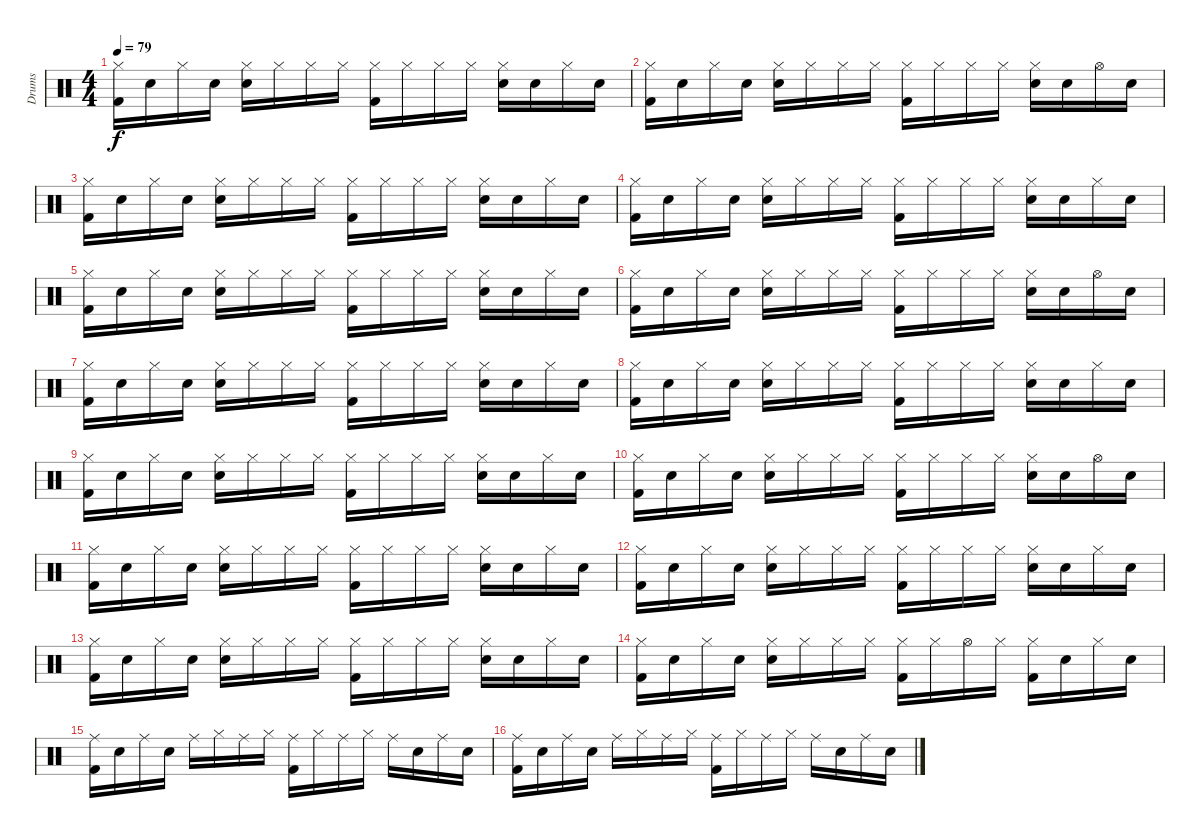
\track ("Drums" "Drums") {instrument percussion}
\staff {score}
\articulation defaults
\ts (4 4)
\tempo 79
\clef neutral
\ks c
("Hi-Hat (closed)" "Kick (hit) 2").16{dy f} "Snare (hit)"{x}.16 "Hi-Hat (closed)".16 "Snare (hit)"{x}.16 ("Hi-Hat (closed)" "Snare (hit) 2").16 "Hi-Hat (closed)"{x}.16 "Hi-Hat (closed)".16 "Hi-Hat (closed)"{x}.16 ("Hi-Hat (closed)" "Kick (hit) 2").16 "Hi-Hat (closed)"{x}.16 "Hi-Hat (closed)".16 "Hi-Hat (closed)"{x}.16 ("Hi-Hat (closed)" "Snare (hit) 2").16 "Snare (hit)"{x}.16 "Hi-Hat (closed)".16 "Snare (hit)"{x}.16 |
("Hi-Hat (closed)" "Kick (hit) 2").16 "Snare (hit)"{x}.16 "Hi-Hat (closed)".16 "Snare (hit)"{x}.16 ("Hi-Hat (closed)" "Snare (hit) 2").16 "Hi-Hat (closed)"{x}.16 "Hi-Hat (closed)".16 "Hi-Hat (closed)"{x}.16 ("Hi-Hat (closed)" "Kick (hit) 2").16 "Hi-Hat (closed)"{x}.16 "Hi-Hat (closed)".16 "Hi-Hat (closed)"{x}.16 ("Hi-Hat (closed)" "Snare (hit) 2").16 "Snare (hit)"{x}.16 "Hi-Hat (open)".16 "Snare (hit)"{x}.16 |
("Hi-Hat (closed)" "Kick (hit) 2").16 "Snare (hit)"{x}.16 "Hi-Hat (closed)".16 "Snare (hit)"{x}.16 ("Hi-Hat (closed)" "Snare (hit) 2").16 "Hi-Hat (closed)"{x}.16 "Hi-Hat (closed)".16 "Hi-Hat (closed)"{x}.16 ("Hi-Hat (closed)" "Kick (hit) 2").16 "Hi-Hat (closed)"{x}.16 "Hi-Hat (closed)".16 "Hi-Hat (closed)"{x}.16 ("Hi-Hat (closed)" "Snare (hit) 2").16 "Snare (hit)"{x}.16 "Hi-Hat (closed)".16 "Snare (hit)"{x}.16 |
("Hi-Hat (closed)" "Kick (hit) 2").16 "Snare (hit)"{x}.16 "Hi-Hat (closed)".16 "Snare (hit)"{x}.16 ("Hi-Hat (closed)" "Snare (hit) 2").16 "Hi-Hat (closed)"{x}.16 "Hi-Hat (closed)".16 "Hi-Hat (closed)"{x}.16 ("Hi-Hat (closed)" "Kick (hit) 2").16 "Hi-Hat (closed)"{x}.16 "Hi-Hat (closed)".16 "Hi-Hat (closed)"{x}.16 ("Hi-Hat (closed)" "Snare (hit) 2").16 "Snare (hit)"{x}.16 "Hi-Hat (closed)".16 "Snare (hit)"{x}.16 |
("Hi-Hat (closed)" "Kick (hit) 2").16 "Snare (hit)"{x}.16 "Hi-Hat (closed)".16 "Snare (hit)"{x}.16 ("Hi-Hat (closed)" "Snare (hit) 2").16 "Hi-Hat (closed)"{x}.16 "Hi-Hat (closed)".16 "Hi-Hat (closed)"{x}.16 ("Hi-Hat (closed)" "Kick (hit) 2").16 "Hi-Hat (closed)"{x}.16 "Hi-Hat (closed)".16 "Hi-Hat (closed)"{x}.16 ("Hi-Hat (closed)" "Snare (hit) 2").16 "Snare (hit)"{x}.16 "Hi-Hat (closed)".16 "Snare (hit)"{x}.16 |
("Hi-Hat (closed)" "Kick (hit) 2").16 "Snare (hit)"{x}.16 "Hi-Hat (closed)".16 "Snare (hit)"{x}.16 ("Hi-Hat (closed)" "Snare (hit) 2").16 "Hi-Hat (closed)"{x}.16 "Hi-Hat (closed)".16 "Hi-Hat (closed)"{x}.16 ("Hi-Hat (closed)" "Kick (hit) 2").16 "Hi-Hat (closed)"{x}.16 "Hi-Hat (closed)".16 "Hi-Hat (closed)"{x}.16 ("Hi-Hat (closed)" "Snare (hit) 2").16 "Snare (hit)"{x}.16 "Hi-Hat (open)".16 "Snare (hit)"{x}.16 |
("Hi-Hat (closed)" "Kick (hit) 2").16 "Snare (hit)"{x}.16 "Hi-Hat (closed)".16 "Snare (hit)"{x}.16 ("Hi-Hat (closed)" "Snare (hit) 2").16 "Hi-Hat (closed)"{x}.16 "Hi-Hat (closed)".16 "Hi-Hat (closed)"{x}.16 ("Hi-Hat (closed)" "Kick (hit) 2").16 "Hi-Hat (closed)"{x}.16 "Hi-Hat (closed)".16 "Hi-Hat (closed)"{x}.16 ("Hi-Hat (closed)" "Snare (hit) 2").16 "Snare (hit)"{x}.16 "Hi-Hat (closed)".16 "Snare (hit)"{x}.16 |
("Hi-Hat (closed)" "Kick (hit) 2").16 "Snare (hit)"{x}.16 "Hi-Hat (closed)".16 "Snare (hit)"{x}.16 ("Hi-Hat (closed)" "Snare (hit) 2").16 "Hi-Hat (closed)"{x}.16 "Hi-Hat (closed)".16 "Hi-Hat (closed)"{x}.16 ("Hi-Hat (closed)" "Kick (hit) 2").16 "Hi-Hat (closed)"{x}.16 "Hi-Hat (closed)".16 "Hi-Hat (closed)"{x}.16 ("Hi-Hat (closed)" "Snare (hit) 2").16 "Snare (hit)"{x}.16 "Hi-Hat (closed)".16 "Snare (hit)"{x}.16 |
("Hi-Hat (closed)" "Kick (hit) 2").16 "Snare (hit)"{x}.16 "Hi-Hat (closed)".16 "Snare (hit)"{x}.16 ("Hi-Hat (closed)" "Snare (hit) 2").16 "Hi-Hat (closed)"{x}.16 "Hi-Hat (closed)".16 "Hi-Hat (closed)"{x}.16 ("Hi-Hat (closed)" "Kick (hit) 2").16 "Hi-Hat (closed)"{x}.16 "Hi-Hat (closed)".16 "Hi-Hat (closed)"{x}.16 ("Hi-Hat (closed)" "Snare (hit) 2").16 "Snare (hit)"{x}.16 "Hi-Hat (closed)".16 "Snare (hit)"{x}.16 |
("Hi-Hat (closed)" "Kick (hit) 2").16 "Snare (hit)"{x}.16 "Hi-Hat (closed)".16 "Snare (hit)"{x}.16 ("Hi-Hat (closed)" "Snare (hit) 2").16 "Hi-Hat (closed)"{x}.16 "Hi-Hat (closed)".16 "Hi-Hat (closed)"{x}.16 ("Hi-Hat (closed)" "Kick (hit) 2").16 "Hi-Hat (closed)"{x}.16 "Hi-Hat (closed)".16 "Hi-Hat (closed)"{x}.16 ("Hi-Hat (closed)" "Snare (hit) 2").16 "Snare (hit)"{x}.16 "Hi-Hat (open)".16 "Snare (hit)"{x}.16 |
("Hi-Hat (closed)" "Kick (hit) 2").16 "Snare (hit)"{x}.16 "Hi-Hat (closed)".16 "Snare (hit)"{x}.16 ("Hi-Hat (closed)" "Snare (hit) 2").16 "Hi-Hat (closed)"{x}.16 "Hi-Hat (closed)".16 "Hi-Hat (closed)"{x}.16 ("Hi-Hat (closed)" "Kick (hit) 2").16 "Hi-Hat (closed)"{x}.16 "Hi-Hat (closed)".16 "Hi-Hat (closed)"{x}.16 ("Hi-Hat (closed)" "Snare (hit) 2").16 "Snare (hit)"{x}.16 "Hi-Hat (closed)".16 "Snare (hit)"{x}.16 |
("Hi-Hat (closed)" "Kick (hit) 2").16 "Snare (hit)"{x}.16 "Hi-Hat (closed)".16 "Snare (hit)"{x}.16 ("Hi-Hat (closed)" "Snare (hit) 2").16 "Hi-Hat (closed)"{x}.16 "Hi-Hat (closed)".16 "Hi-Hat (closed)"{x}.16 ("Hi-Hat (closed)" "Kick (hit) 2").16 "Hi-Hat (closed)"{x}.16 "Hi-Hat (closed)".16 "Hi-Hat (closed)"{x}.16 ("Hi-Hat (closed)" "Snare (hit) 2").16 "Snare (hit)"{x}.16 "Hi-Hat (closed)".16 "Snare (hit)"{x}.16 |
("Hi-Hat (closed)" "Kick (hit) 2").16 "Snare (hit)"{x}.16 "Hi-Hat (closed)".16 "Snare (hit)"{x}.16 ("Hi-Hat (closed)" "Snare (hit) 2").16 "Hi-Hat (closed)"{x}.16 "Hi-Hat (closed)".16 "Hi-Hat (closed)"{x}.16 ("Hi-Hat (closed)" "Kick (hit) 2").16 "Hi-Hat (closed)"{x}.16 "Hi-Hat (closed)".16 "Hi-Hat (closed)"{x}.16 ("Hi-Hat (closed)" "Snare (hit) 2").16 "Snare (hit)"{x}.16 "Hi-Hat (closed)".16 "Snare (hit)"{x}.16 |
("Hi-Hat (closed)" "Kick (hit) 2").16 "Snare (hit)"{x}.16 "Hi-Hat (closed)".16 "Snare (hit)"{x}.16 ("Hi-Hat (closed)" "Snare (hit) 2").16 "Hi-Hat (closed)"{x}.16 "Hi-Hat (closed)".16 "Hi-Hat (closed)"{x}.16 ("Hi-Hat (closed)" "Kick (hit) 2").16 "Hi-Hat (closed)"{x}.16 "Hi-Hat (open)".16 "Hi-Hat (closed)"{x}.16 ("Hi-Hat (closed)" "Kick (hit) 2").16 "Snare (hit)"{x}.16 "Hi-Hat (closed)".16 "Snare (hit)"{x}.16 |
("Ride (middle)" "Kick (hit) 2").16 "Snare (hit)"{x}.16 "Ride (middle)"{x}.16 "Snare (hit)"{x}.16 "Ride (middle)".16 "Hi-Hat (closed)"{x}.16 "Ride (middle)"{x}.16 "Hi-Hat (closed)"{x}.16 ("Ride (middle)" "Kick (hit) 2").16 "Hi-Hat (closed)"{x}.16 "Ride (middle)"{x}.16 "Hi-Hat (closed)"{x}.16 "Ride (middle)".16 "Snare (hit)"{x}.16 "Ride (middle)"{x}.16 "Snare (hit)"{x}.16 |
("Ride (middle)" "Kick (hit) 2").16 "Snare (hit)"{x}.16 "Ride (middle)"{x}.16 "Snare (hit)"{x}.16 "Ride (middle)".16 "Hi-Hat (closed)"{x}.16 "Ride (middle)"{x}.16 "Hi-Hat (closed)"{x}.16 ("Ride (middle)" "Kick (hit) 2").16 "Hi-Hat (closed)"{x}.16 "Ride (middle)"{x}.16 "Hi-Hat (closed)"{x}.16 "Ride (middle)".16 "Snare (hit)"{x}.16 "Ride (middle)"{x}.16 "Snare (hit)"{x}.16
